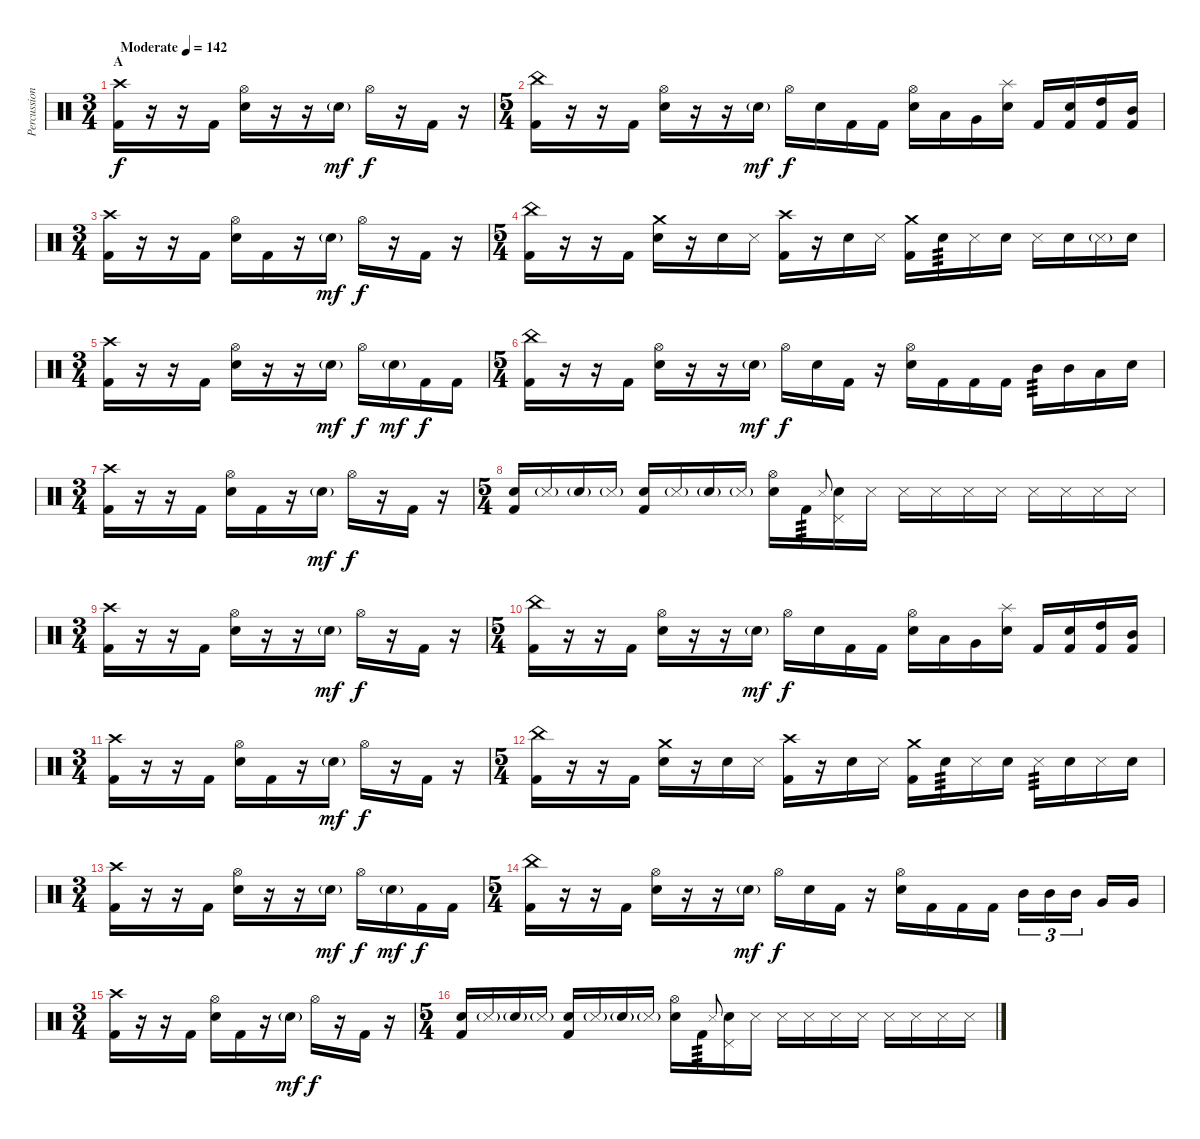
\track ("Percussion" "Percussion") {instrument percussion}
\staff {score}
\articulation defaults
\ts (3 4)
\section ("" "A")
\tempo (142 "Moderate")
\clef neutral
\ks c
("Crash high (hit)" "Kick (hit) 2").16{dy f} r.16 r.16 "Kick (hit) 2".16 ("Hi-Hat (open)" "Snare (hit) 2").16 r.16 r.16 "Snare (hit) 2"{g}.16{dy mf} "Hi-Hat (open)".16{dy f} r.16 "Kick (hit) 2".16 r.16 |
\ts (5 4)
("China (hit)" "Kick (hit) 2").16 r.16 r.16 "Kick (hit) 2".16 ("Hi-Hat (open)" "Snare (hit) 2").16 r.16 r.16 "Snare (hit) 2"{g}.16{dy mf} "Hi-Hat (open)".16{dy f} "Snare (hit) 2".16 "Kick (hit) 2".16 "Kick (hit) 2".16 ("Hi-Hat (open)" "Snare (hit) 2").16 "Low Tom (hit)".16 "Very Low Tom (hit)".16 ("Splash (hit)" "Snare (hit) 2").16 "Kick (hit) 2".16 ("Snare (hit) 2" "Kick (hit) 2").16 ("High Tom (hit)" "Kick (hit) 2").16 ("Mid Tom (hit)" "Kick (hit) 2").16 |
\ts (3 4)
("Crash high (hit)" "Kick (hit) 2").16 r.16 r.16 "Kick (hit) 2".16 ("Hi-Hat (open)" "Snare (hit) 2").16 "Kick (hit) 2".16 r.16 "Snare (hit) 2"{g}.16{dy mf} "Hi-Hat (open)".16{dy f} r.16 "Kick (hit) 2".16 r.16 |
\ts (5 4)
("China (hit)" "Kick (hit) 2").16 r.16 r.16 "Kick (hit) 2".16 ("Crash medium (hit)" "Snare (hit) 2").16 r.16 "Snare (hit) 2".16 "Metronome (hit)".16 ("Crash high (hit)" "Kick (hit) 2").16 r.16 "Snare (hit) 2".16 "Metronome (hit)".16 ("Crash medium (hit)" "Kick (hit) 2").16 "Snare (hit) 2".16{tp 3} "Metronome (hit)".16 "Snare (hit) 2".16 "Metronome (hit)".16 "Snare (hit) 2".16 "Metronome (hit)"{g}.16 "Snare (hit) 2".16 |
\ts (3 4)
("Crash high (hit)" "Kick (hit) 2").16 r.16 r.16 "Kick (hit) 2".16 ("Hi-Hat (open)" "Snare (hit) 2").16 r.16 r.16 "Snare (hit) 2"{g}.16{dy mf} "Hi-Hat (open)".16{dy f} "Snare (hit) 2"{g}.16{dy mf} "Kick (hit) 2".16{dy f} "Kick (hit) 2".16 |
\ts (5 4)
("China (hit)" "Kick (hit) 2").16 r.16 r.16 "Kick (hit) 2".16 ("Hi-Hat (open)" "Snare (hit) 2").16 r.16 r.16 "Snare (hit) 2"{g}.16{dy mf} "Hi-Hat (open)".16{dy f} "Snare (hit) 2".16 "Kick (hit) 2".16 r.16 ("Hi-Hat (open)" "Snare (hit) 2").16 "Kick (hit) 2".16 "Kick (hit) 2".16 "Kick (hit) 2".16 "Mid Tom (hit)".16{tp 3} "Mid Tom (hit)".16 "Low Tom (hit)".16 "Snare (hit) 2".16 |
\ts (3 4)
("Crash high (hit)" "Kick (hit) 2").16 r.16 r.16 "Kick (hit) 2".16 ("Hi-Hat (open)" "Snare (hit) 2").16 "Kick (hit) 2".16 r.16 "Snare (hit) 2"{g}.16{dy mf} "Hi-Hat (open)".16{dy f} r.16 "Kick (hit) 2".16 r.16 |
\ts (5 4)
("Snare (hit) 2" "Kick (hit) 2").16 "Metronome (hit)"{g}.16 "Snare (hit) 2"{g}.16 "Metronome (hit)"{g}.16 ("Snare (hit) 2" "Kick (hit) 2").16 "Metronome (hit)"{g}.16 "Snare (hit) 2"{g}.16 "Metronome (hit)"{g}.16 ("Hi-Hat (open)" "Snare (hit) 2").16 "Kick (hit) 2".16{tp 3} "Metronome (hit)".8{gr onbeat} ("Pedal Hi-Hat (hit)" "Snare (hit) 2").16 "Snare (side stick) 3".16 "Snare (side stick) 3".16 "Snare (side stick) 3".16 "Snare (side stick) 3".16 "Snare (side stick) 3".16 "Snare (side stick) 3".16 "Snare (side stick) 3".16 "Snare (side stick) 3".16 "Snare (side stick) 3".16 |
\ts (3 4)
("Crash high (hit)" "Kick (hit) 2").16 r.16 r.16 "Kick (hit) 2".16 ("Hi-Hat (open)" "Snare (hit) 2").16 r.16 r.16 "Snare (hit) 2"{g}.16{dy mf} "Hi-Hat (open)".16{dy f} r.16 "Kick (hit) 2".16 r.16 |
\ts (5 4)
("China (hit)" "Kick (hit) 2").16 r.16 r.16 "Kick (hit) 2".16 ("Hi-Hat (open)" "Snare (hit) 2").16 r.16 r.16 "Snare (hit) 2"{g}.16{dy mf} "Hi-Hat (open)".16{dy f} "Snare (hit) 2".16 "Kick (hit) 2".16 "Kick (hit) 2".16 ("Hi-Hat (open)" "Snare (hit) 2").16 "Low Tom (hit)".16 "Very Low Tom (hit)".16 ("Splash (hit)" "Snare (hit) 2").16 "Kick (hit) 2".16 ("Snare (hit) 2" "Kick (hit) 2").16 ("High Tom (hit)" "Kick (hit) 2").16 ("Mid Tom (hit)" "Kick (hit) 2").16 |
\ts (3 4)
("Crash high (hit)" "Kick (hit) 2").16 r.16 r.16 "Kick (hit) 2".16 ("Hi-Hat (open)" "Snare (hit) 2").16 "Kick (hit) 2".16 r.16 "Snare (hit) 2"{g}.16{dy mf} "Hi-Hat (open)".16{dy f} r.16 "Kick (hit) 2".16 r.16 |
\ts (5 4)
("China (hit)" "Kick (hit) 2").16 r.16 r.16 "Kick (hit) 2".16 ("Crash medium (hit)" "Snare (hit) 2").16 r.16 "Snare (hit) 2".16 "Metronome (hit)".16 ("Crash high (hit)" "Kick (hit) 2").16 r.16 "Snare (hit) 2".16 "Metronome (hit)".16 ("Crash medium (hit)" "Kick (hit) 2").16 "Snare (hit) 2".16{tp 3} "Metronome (hit)".16 "Snare (hit) 2".16 "Metronome (hit)".16{tp 3} "Snare (hit) 2".16 "Metronome (hit)".16 "Snare (hit) 2".16 |
\ts (3 4)
("Crash high (hit)" "Kick (hit) 2").16 r.16 r.16 "Kick (hit) 2".16 ("Hi-Hat (open)" "Snare (hit) 2").16 r.16 r.16 "Snare (hit) 2"{g}.16{dy mf} "Hi-Hat (open)".16{dy f} "Snare (hit) 2"{g}.16{dy mf} "Kick (hit) 2".16{dy f} "Kick (hit) 2".16 |
\ts (5 4)
("China (hit)" "Kick (hit) 2").16 r.16 r.16 "Kick (hit) 2".16 ("Hi-Hat (open)" "Snare (hit) 2").16 r.16 r.16 "Snare (hit) 2"{g}.16{dy mf} "Hi-Hat (open)".16{dy f} "Snare (hit) 2".16 "Kick (hit) 2".16 r.16 ("Hi-Hat (open)" "Snare (hit) 2").16 "Kick (hit) 2".16 "Kick (hit) 2".16 "Kick (hit) 2".16 "Mid Tom (hit)".16{tu (3 2)} "Mid Tom (hit)".16{tu (3 2)} "Mid Tom (hit)".16{tu (3 2) beam splitsecondary} "Very Low Tom (hit)".16 "Very Low Tom (hit)".16 |
\ts (3 4)
("Crash high (hit)" "Kick (hit) 2").16 r.16 r.16 "Kick (hit) 2".16 ("Hi-Hat (open)" "Snare (hit) 2").16 "Kick (hit) 2".16 r.16 "Snare (hit) 2"{g}.16{dy mf} "Hi-Hat (open)".16{dy f} r.16 "Kick (hit) 2".16 r.16 |
\ts (5 4)
("Snare (hit) 2" "Kick (hit) 2").16 "Metronome (hit)"{g}.16 "Snare (hit) 2"{g}.16 "Metronome (hit)"{g}.16 ("Snare (hit) 2" "Kick (hit) 2").16 "Metronome (hit)"{g}.16 "Snare (hit) 2"{g}.16 "Metronome (hit)"{g}.16 ("Hi-Hat (open)" "Snare (hit) 2").16 "Kick (hit) 2".16{tp 3} "Metronome (hit)".8{gr onbeat} ("Pedal Hi-Hat (hit)" "Snare (hit) 2").16 "Snare (side stick) 3".16 "Snare (side stick) 3".16 "Snare (side stick) 3".16 "Snare (side stick) 3".16 "Snare (side stick) 3".16 "Snare (side stick) 3".16 "Snare (side stick) 3".16 "Snare (side stick) 3".16 "Snare (side stick) 3".16
